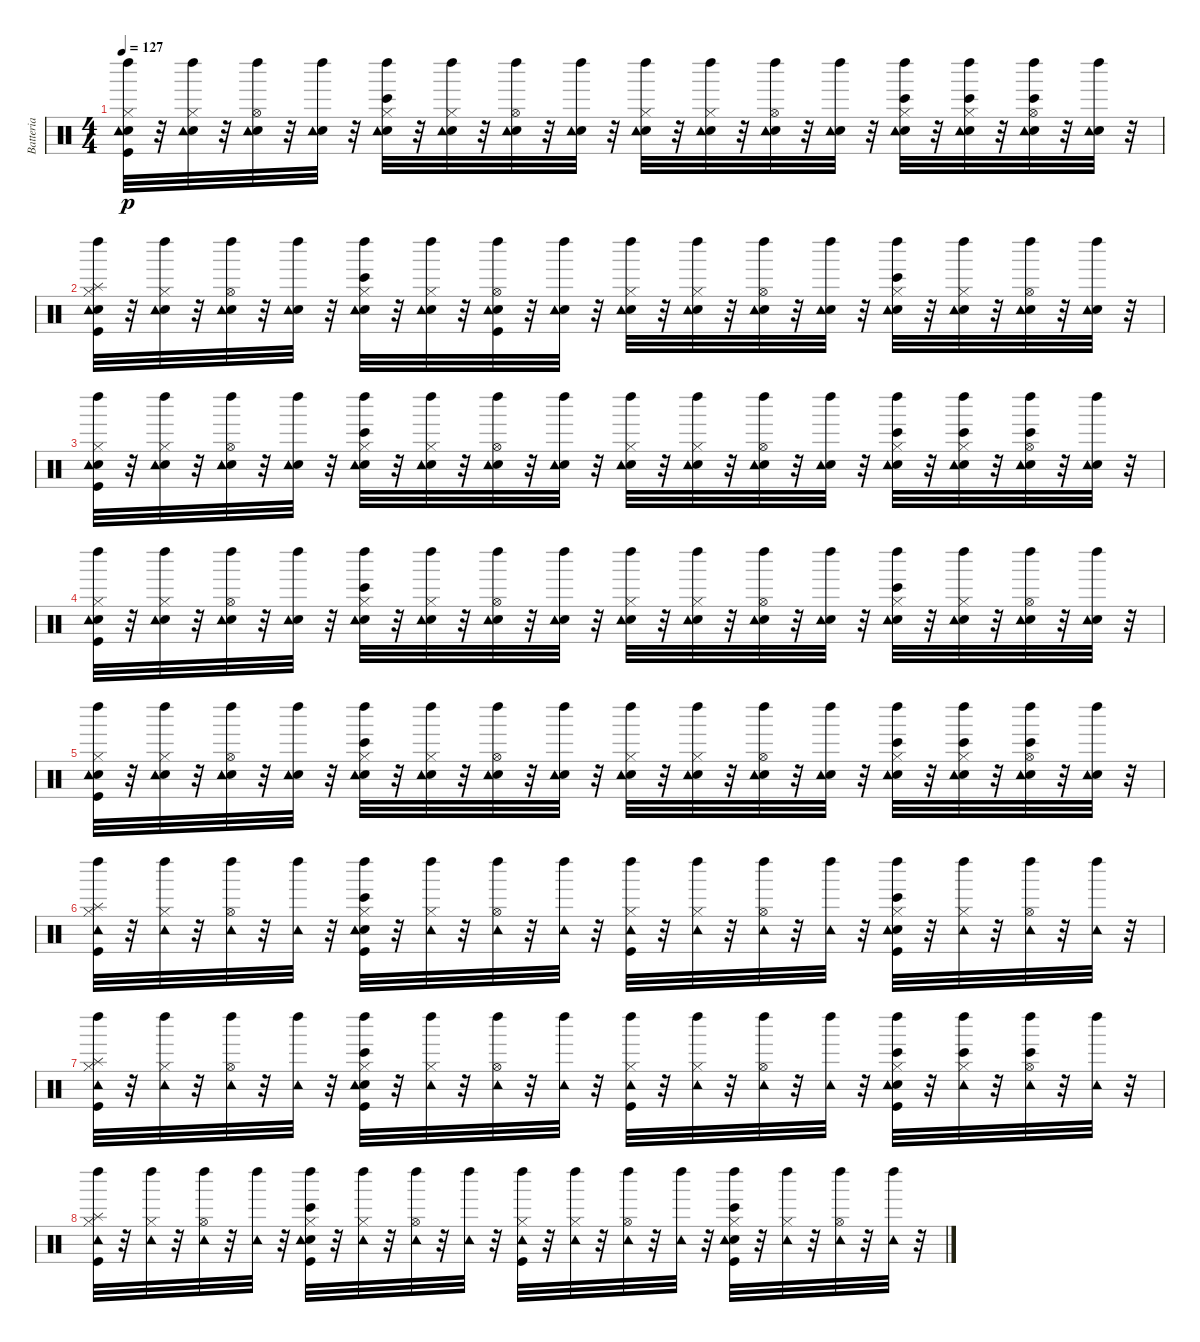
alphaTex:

\track ("Batteria" "Batteria") {instrument percussion}
\staff {score}
\articulation defaults
\ts (4 4)
\tempo 127
\clef neutral
\ks c
("Kick (hit)" "Electric Snare (hit)" "Hi-Hat (closed)" "Tambourine (hit)" "Left Maraca (hit)").32{dy p} r.32 ("Electric Snare (hit)" "Hi-Hat (closed)" "Tambourine (hit)" "Left Maraca (hit)").32 r.32 ("Electric Snare (hit)" "Hi-Hat (open)" "Tambourine (hit)" "Left Maraca (hit)").32 r.32 ("Electric Snare (hit)" "Tambourine (hit)" "Left Maraca (hit)").32 r.32 ("Bongo High (hit)" "Electric Snare (hit)" "Hi-Hat (closed)" "Tambourine (hit)" "Left Maraca (hit)").32 r.32 ("Electric Snare (hit)" "Hi-Hat (closed)" "Tambourine (hit)" "Left Maraca (hit)").32 r.32 ("Electric Snare (hit)" "Hi-Hat (open)" "Tambourine (hit)" "Left Maraca (hit)").32 r.32 ("Electric Snare (hit)" "Tambourine (hit)" "Left Maraca (hit)").32 r.32 ("Electric Snare (hit)" "Hi-Hat (closed)" "Tambourine (hit)" "Left Maraca (hit)").32 r.32 ("Electric Snare (hit)" "Hi-Hat (closed)" "Tambourine (hit)" "Left Maraca (hit)").32 r.32 ("Electric Snare (hit)" "Hi-Hat (open)" "Tambourine (hit)" "Left Maraca (hit)").32 r.32 ("Electric Snare (hit)" "Tambourine (hit)" "Left Maraca (hit)").32 r.32 ("Bongo High (hit)" "Electric Snare (hit)" "Hi-Hat (closed)" "Tambourine (hit)" "Left Maraca (hit)").32 r.32 ("Bongo High (hit)" "Electric Snare (hit)" "Hi-Hat (closed)" "Tambourine (hit)" "Left Maraca (hit)").32 r.32 ("Bongo High (hit)" "Electric Snare (hit)" "Hi-Hat (open)" "Tambourine (hit)" "Left Maraca (hit)").32 r.32 ("Electric Snare (hit)" "Tambourine (hit)" "Left Maraca (hit)").32 r.32 |
("Kick (hit)" "Electric Snare (hit)" "Hi-Hat (closed)" "Tambourine (hit)" "Splash (hit)" "Left Maraca (hit)").32 r.32 ("Electric Snare (hit)" "Hi-Hat (closed)" "Tambourine (hit)" "Left Maraca (hit)").32 r.32 ("Electric Snare (hit)" "Hi-Hat (open)" "Tambourine (hit)" "Left Maraca (hit)").32 r.32 ("Electric Snare (hit)" "Tambourine (hit)" "Left Maraca (hit)").32 r.32 ("Bongo High (hit)" "Electric Snare (hit)" "Hi-Hat (closed)" "Tambourine (hit)" "Left Maraca (hit)").32 r.32 ("Electric Snare (hit)" "Hi-Hat (closed)" "Tambourine (hit)" "Left Maraca (hit)").32 r.32 ("Kick (hit)" "Electric Snare (hit)" "Hi-Hat (open)" "Tambourine (hit)" "Left Maraca (hit)").32 r.32 ("Electric Snare (hit)" "Tambourine (hit)" "Left Maraca (hit)").32 r.32 ("Electric Snare (hit)" "Hi-Hat (closed)" "Tambourine (hit)" "Left Maraca (hit)").32 r.32 ("Electric Snare (hit)" "Hi-Hat (closed)" "Tambourine (hit)" "Left Maraca (hit)").32 r.32 ("Electric Snare (hit)" "Hi-Hat (open)" "Tambourine (hit)" "Left Maraca (hit)").32 r.32 ("Electric Snare (hit)" "Tambourine (hit)" "Left Maraca (hit)").32 r.32 ("Bongo High (hit)" "Electric Snare (hit)" "Hi-Hat (closed)" "Tambourine (hit)" "Left Maraca (hit)").32 r.32 ("Electric Snare (hit)" "Hi-Hat (closed)" "Tambourine (hit)" "Left Maraca (hit)").32 r.32 ("Electric Snare (hit)" "Hi-Hat (open)" "Tambourine (hit)" "Left Maraca (hit)").32 r.32 ("Electric Snare (hit)" "Tambourine (hit)" "Left Maraca (hit)").32 r.32 |
("Kick (hit)" "Electric Snare (hit)" "Hi-Hat (closed)" "Tambourine (hit)" "Left Maraca (hit)").32 r.32 ("Electric Snare (hit)" "Hi-Hat (closed)" "Tambourine (hit)" "Left Maraca (hit)").32 r.32 ("Electric Snare (hit)" "Hi-Hat (open)" "Tambourine (hit)" "Left Maraca (hit)").32 r.32 ("Electric Snare (hit)" "Tambourine (hit)" "Left Maraca (hit)").32 r.32 ("Bongo High (hit)" "Electric Snare (hit)" "Hi-Hat (closed)" "Tambourine (hit)" "Left Maraca (hit)").32 r.32 ("Electric Snare (hit)" "Hi-Hat (closed)" "Tambourine (hit)" "Left Maraca (hit)").32 r.32 ("Electric Snare (hit)" "Hi-Hat (open)" "Tambourine (hit)" "Left Maraca (hit)").32 r.32 ("Electric Snare (hit)" "Tambourine (hit)" "Left Maraca (hit)").32 r.32 ("Electric Snare (hit)" "Hi-Hat (closed)" "Tambourine (hit)" "Left Maraca (hit)").32 r.32 ("Electric Snare (hit)" "Hi-Hat (closed)" "Tambourine (hit)" "Left Maraca (hit)").32 r.32 ("Electric Snare (hit)" "Hi-Hat (open)" "Tambourine (hit)" "Left Maraca (hit)").32 r.32 ("Electric Snare (hit)" "Tambourine (hit)" "Left Maraca (hit)").32 r.32 ("Bongo High (hit)" "Electric Snare (hit)" "Hi-Hat (closed)" "Tambourine (hit)" "Left Maraca (hit)").32 r.32 ("Bongo High (hit)" "Electric Snare (hit)" "Hi-Hat (closed)" "Tambourine (hit)" "Left Maraca (hit)").32 r.32 ("Bongo High (hit)" "Electric Snare (hit)" "Hi-Hat (open)" "Tambourine (hit)" "Left Maraca (hit)").32 r.32 ("Electric Snare (hit)" "Tambourine (hit)" "Left Maraca (hit)").32 r.32 |
("Kick (hit)" "Electric Snare (hit)" "Hi-Hat (closed)" "Tambourine (hit)" "Left Maraca (hit)").32 r.32 ("Electric Snare (hit)" "Hi-Hat (closed)" "Tambourine (hit)" "Left Maraca (hit)").32 r.32 ("Electric Snare (hit)" "Hi-Hat (open)" "Tambourine (hit)" "Left Maraca (hit)").32 r.32 ("Electric Snare (hit)" "Tambourine (hit)" "Left Maraca (hit)").32 r.32 ("Bongo High (hit)" "Electric Snare (hit)" "Hi-Hat (closed)" "Tambourine (hit)" "Left Maraca (hit)").32 r.32 ("Electric Snare (hit)" "Hi-Hat (closed)" "Tambourine (hit)" "Left Maraca (hit)").32 r.32 ("Electric Snare (hit)" "Hi-Hat (open)" "Tambourine (hit)" "Left Maraca (hit)").32 r.32 ("Electric Snare (hit)" "Tambourine (hit)" "Left Maraca (hit)").32 r.32 ("Electric Snare (hit)" "Hi-Hat (closed)" "Tambourine (hit)" "Left Maraca (hit)").32 r.32 ("Electric Snare (hit)" "Hi-Hat (closed)" "Tambourine (hit)" "Left Maraca (hit)").32 r.32 ("Electric Snare (hit)" "Hi-Hat (open)" "Tambourine (hit)" "Left Maraca (hit)").32 r.32 ("Electric Snare (hit)" "Tambourine (hit)" "Left Maraca (hit)").32 r.32 ("Bongo High (hit)" "Electric Snare (hit)" "Hi-Hat (closed)" "Tambourine (hit)" "Left Maraca (hit)").32 r.32 ("Electric Snare (hit)" "Hi-Hat (closed)" "Tambourine (hit)" "Left Maraca (hit)").32 r.32 ("Electric Snare (hit)" "Hi-Hat (open)" "Tambourine (hit)" "Left Maraca (hit)").32 r.32 ("Electric Snare (hit)" "Tambourine (hit)" "Left Maraca (hit)").32 r.32 |
("Kick (hit)" "Electric Snare (hit)" "Hi-Hat (closed)" "Tambourine (hit)" "Left Maraca (hit)").32 r.32 ("Electric Snare (hit)" "Hi-Hat (closed)" "Tambourine (hit)" "Left Maraca (hit)").32 r.32 ("Electric Snare (hit)" "Hi-Hat (open)" "Tambourine (hit)" "Left Maraca (hit)").32 r.32 ("Electric Snare (hit)" "Tambourine (hit)" "Left Maraca (hit)").32 r.32 ("Bongo High (hit)" "Electric Snare (hit)" "Hi-Hat (closed)" "Tambourine (hit)" "Left Maraca (hit)").32 r.32 ("Electric Snare (hit)" "Hi-Hat (closed)" "Tambourine (hit)" "Left Maraca (hit)").32 r.32 ("Electric Snare (hit)" "Hi-Hat (open)" "Tambourine (hit)" "Left Maraca (hit)").32 r.32 ("Electric Snare (hit)" "Tambourine (hit)" "Left Maraca (hit)").32 r.32 ("Electric Snare (hit)" "Hi-Hat (closed)" "Tambourine (hit)" "Left Maraca (hit)").32 r.32 ("Electric Snare (hit)" "Hi-Hat (closed)" "Tambourine (hit)" "Left Maraca (hit)").32 r.32 ("Electric Snare (hit)" "Hi-Hat (open)" "Tambourine (hit)" "Left Maraca (hit)").32 r.32 ("Electric Snare (hit)" "Tambourine (hit)" "Left Maraca (hit)").32 r.32 ("Bongo High (hit)" "Electric Snare (hit)" "Hi-Hat (closed)" "Tambourine (hit)" "Left Maraca (hit)").32 r.32 ("Bongo High (hit)" "Electric Snare (hit)" "Hi-Hat (closed)" "Tambourine (hit)" "Left Maraca (hit)").32 r.32 ("Bongo High (hit)" "Electric Snare (hit)" "Hi-Hat (open)" "Tambourine (hit)" "Left Maraca (hit)").32 r.32 ("Electric Snare (hit)" "Tambourine (hit)" "Left Maraca (hit)").32 r.32 |
("Kick (hit)" "Hi-Hat (closed)" "Tambourine (hit)" "Splash (hit)" "Left Maraca (hit)").32 r.32 ("Hi-Hat (closed)" "Tambourine (hit)" "Left Maraca (hit)").32 r.32 ("Hi-Hat (open)" "Tambourine (hit)" "Left Maraca (hit)").32 r.32 ("Tambourine (hit)" "Left Maraca (hit)").32 r.32 ("Bongo High (hit)" "Kick (hit)" "Electric Snare (hit)" "Hi-Hat (closed)" "Tambourine (hit)" "Left Maraca (hit)").32 r.32 ("Hi-Hat (closed)" "Tambourine (hit)" "Left Maraca (hit)").32 r.32 ("Hi-Hat (open)" "Tambourine (hit)" "Left Maraca (hit)").32 r.32 ("Tambourine (hit)" "Left Maraca (hit)").32 r.32 ("Kick (hit)" "Hi-Hat (closed)" "Tambourine (hit)" "Left Maraca (hit)").32 r.32 ("Hi-Hat (closed)" "Tambourine (hit)" "Left Maraca (hit)").32 r.32 ("Hi-Hat (open)" "Tambourine (hit)" "Left Maraca (hit)").32 r.32 ("Tambourine (hit)" "Left Maraca (hit)").32 r.32 ("Bongo High (hit)" "Kick (hit)" "Electric Snare (hit)" "Hi-Hat (closed)" "Tambourine (hit)" "Left Maraca (hit)").32 r.32 ("Hi-Hat (closed)" "Tambourine (hit)" "Left Maraca (hit)").32 r.32 ("Hi-Hat (open)" "Tambourine (hit)" "Left Maraca (hit)").32 r.32 ("Tambourine (hit)" "Left Maraca (hit)").32 r.32 |
("Kick (hit)" "Hi-Hat (closed)" "Tambourine (hit)" "Splash (hit)" "Left Maraca (hit)").32 r.32 ("Hi-Hat (closed)" "Tambourine (hit)" "Left Maraca (hit)").32 r.32 ("Hi-Hat (open)" "Tambourine (hit)" "Left Maraca (hit)").32 r.32 ("Tambourine (hit)" "Left Maraca (hit)").32 r.32 ("Bongo High (hit)" "Kick (hit)" "Electric Snare (hit)" "Hi-Hat (closed)" "Tambourine (hit)" "Left Maraca (hit)").32 r.32 ("Hi-Hat (closed)" "Tambourine (hit)" "Left Maraca (hit)").32 r.32 ("Hi-Hat (open)" "Tambourine (hit)" "Left Maraca (hit)").32 r.32 ("Tambourine (hit)" "Left Maraca (hit)").32 r.32 ("Kick (hit)" "Hi-Hat (closed)" "Tambourine (hit)" "Left Maraca (hit)").32 r.32 ("Hi-Hat (closed)" "Tambourine (hit)" "Left Maraca (hit)").32 r.32 ("Hi-Hat (open)" "Tambourine (hit)" "Left Maraca (hit)").32 r.32 ("Tambourine (hit)" "Left Maraca (hit)").32 r.32 ("Bongo High (hit)" "Kick (hit)" "Electric Snare (hit)" "Hi-Hat (closed)" "Tambourine (hit)" "Left Maraca (hit)").32 r.32 ("Bongo High (hit)" "Hi-Hat (closed)" "Tambourine (hit)" "Left Maraca (hit)").32 r.32 ("Bongo High (hit)" "Hi-Hat (open)" "Tambourine (hit)" "Left Maraca (hit)").32 r.32 ("Tambourine (hit)" "Left Maraca (hit)").32 r.32 |
("Kick (hit)" "Hi-Hat (closed)" "Tambourine (hit)" "Splash (hit)" "Left Maraca (hit)").32 r.32 ("Hi-Hat (closed)" "Tambourine (hit)" "Left Maraca (hit)").32 r.32 ("Hi-Hat (open)" "Tambourine (hit)" "Left Maraca (hit)").32 r.32 ("Tambourine (hit)" "Left Maraca (hit)").32 r.32 ("Bongo High (hit)" "Kick (hit)" "Electric Snare (hit)" "Hi-Hat (closed)" "Tambourine (hit)" "Left Maraca (hit)").32 r.32 ("Hi-Hat (closed)" "Tambourine (hit)" "Left Maraca (hit)").32 r.32 ("Hi-Hat (open)" "Tambourine (hit)" "Left Maraca (hit)").32 r.32 ("Tambourine (hit)" "Left Maraca (hit)").32 r.32 ("Kick (hit)" "Hi-Hat (closed)" "Tambourine (hit)" "Left Maraca (hit)").32 r.32 ("Hi-Hat (closed)" "Tambourine (hit)" "Left Maraca (hit)").32 r.32 ("Hi-Hat (open)" "Tambourine (hit)" "Left Maraca (hit)").32 r.32 ("Tambourine (hit)" "Left Maraca (hit)").32 r.32 ("Bongo High (hit)" "Kick (hit)" "Electric Snare (hit)" "Hi-Hat (closed)" "Tambourine (hit)" "Left Maraca (hit)").32 r.32 ("Hi-Hat (closed)" "Tambourine (hit)" "Left Maraca (hit)").32 r.32 ("Hi-Hat (open)" "Tambourine (hit)" "Left Maraca (hit)").32 r.32 ("Tambourine (hit)" "Left Maraca (hit)").32 r.32
